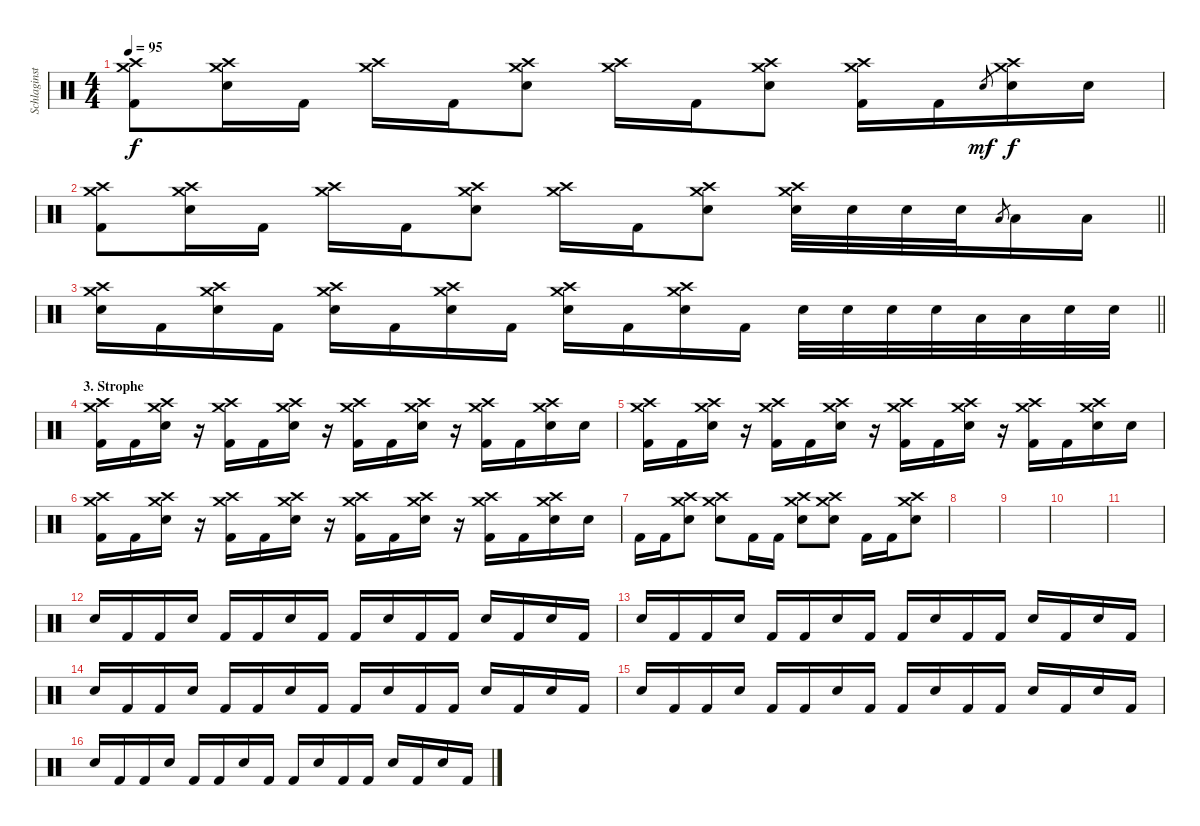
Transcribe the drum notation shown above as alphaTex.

\track ("Schlaginstrumente - Auswahl" "Schlaginst") {instrument percussion}
\staff {score}
\articulation defaults
\ts (4 4)
\tempo 95
\clef neutral
\ks c
("Crash high (hit)" "Crash medium (hit)" "Kick (hit) 2").8{dy f} ("Crash high (hit)" "Crash medium (hit)" "Electric Snare (hit)").16 "Kick (hit) 2".16 ("Crash high (hit)" "Crash medium (hit)").16 "Kick (hit) 2".16 ("Crash high (hit)" "Crash medium (hit)" "Electric Snare (hit)").8 ("Crash high (hit)" "Crash medium (hit)").16 "Kick (hit) 2".16 ("Crash high (hit)" "Crash medium (hit)" "Electric Snare (hit)").8 ("Crash high (hit)" "Crash medium (hit)" "Kick (hit) 2").16 "Kick (hit) 2".16 "Electric Snare (hit)".8{gr dy mf} ("Crash high (hit)" "Crash medium (hit)" "Electric Snare (hit)").16{dy f} "Electric Snare (hit)".16 |
\barLineRight lightlight
("Crash high (hit)" "Crash medium (hit)" "Kick (hit) 2").8 ("Crash high (hit)" "Crash medium (hit)" "Electric Snare (hit)").16 "Kick (hit) 2".16 ("Crash high (hit)" "Crash medium (hit)").16 "Kick (hit) 2".16 ("Crash high (hit)" "Crash medium (hit)" "Electric Snare (hit)").8 ("Crash high (hit)" "Crash medium (hit)").16 "Kick (hit) 2".16 ("Crash high (hit)" "Crash medium (hit)" "Electric Snare (hit)").8 ("Crash high (hit)" "Crash medium (hit)" "Electric Snare (hit)").32 "Electric Snare (hit)".32 "Electric Snare (hit)".32 "Electric Snare (hit)".32 "Low Tom (hit)".8{gr} "Low Tom (hit)".16 "Low Tom (hit)".16 |
\barLineRight lightlight
("Crash high (hit)" "Crash medium (hit)" "Electric Snare (hit)").16 "Kick (hit) 2".16 ("Crash high (hit)" "Crash medium (hit)" "Electric Snare (hit)").16 "Kick (hit) 2".16 ("Crash high (hit)" "Crash medium (hit)" "Electric Snare (hit)").16 "Kick (hit) 2".16 ("Crash high (hit)" "Crash medium (hit)" "Electric Snare (hit)").16 "Kick (hit) 2".16 ("Crash high (hit)" "Crash medium (hit)" "Electric Snare (hit)").16 "Kick (hit) 2".16 ("Crash high (hit)" "Crash medium (hit)" "Electric Snare (hit)").16 "Kick (hit) 2".16 "Electric Snare (hit)".32 "Electric Snare (hit)".32 "Electric Snare (hit)".32 "Electric Snare (hit)".32 "Low Tom (hit)".32 "Low Tom (hit)".32 "Snare (hit) 2".32 "Snare (hit) 2".32 |
\section ("" "3. Strophe")
("Crash high (hit)" "Crash medium (hit)" "Kick (hit) 2").16 "Kick (hit) 2".16 ("Crash high (hit)" "Crash medium (hit)" "Electric Snare (hit)").16 r.16 ("Crash high (hit)" "Crash medium (hit)" "Kick (hit) 2").16 "Kick (hit) 2".16 ("Crash high (hit)" "Crash medium (hit)" "Electric Snare (hit)").16 r.16 ("Crash high (hit)" "Crash medium (hit)" "Kick (hit) 2").16 "Kick (hit) 2".16 ("Crash high (hit)" "Crash medium (hit)" "Electric Snare (hit)").16 r.16 ("Crash high (hit)" "Crash medium (hit)" "Kick (hit) 2").16 "Kick (hit) 2".16 ("Crash high (hit)" "Crash medium (hit)" "Electric Snare (hit)").16 "Electric Snare (hit)".16 |
("Crash high (hit)" "Crash medium (hit)" "Kick (hit) 2").16 "Kick (hit) 2".16 ("Crash high (hit)" "Crash medium (hit)" "Electric Snare (hit)").16 r.16 ("Crash high (hit)" "Crash medium (hit)" "Kick (hit) 2").16 "Kick (hit) 2".16 ("Crash high (hit)" "Crash medium (hit)" "Electric Snare (hit)").16 r.16 ("Crash high (hit)" "Crash medium (hit)" "Kick (hit) 2").16 "Kick (hit) 2".16 ("Crash high (hit)" "Crash medium (hit)" "Electric Snare (hit)").16 r.16 ("Crash high (hit)" "Crash medium (hit)" "Kick (hit) 2").16 "Kick (hit) 2".16 ("Crash high (hit)" "Crash medium (hit)" "Electric Snare (hit)").16 "Electric Snare (hit)".16 |
("Crash high (hit)" "Crash medium (hit)" "Kick (hit) 2").16 "Kick (hit) 2".16 ("Crash high (hit)" "Crash medium (hit)" "Electric Snare (hit)").16 r.16 ("Crash high (hit)" "Crash medium (hit)" "Kick (hit) 2").16 "Kick (hit) 2".16 ("Crash high (hit)" "Crash medium (hit)" "Electric Snare (hit)").16 r.16 ("Crash high (hit)" "Crash medium (hit)" "Kick (hit) 2").16 "Kick (hit) 2".16 ("Crash high (hit)" "Crash medium (hit)" "Electric Snare (hit)").16 r.16 ("Crash high (hit)" "Crash medium (hit)" "Kick (hit) 2").16 "Kick (hit) 2".16 ("Crash high (hit)" "Crash medium (hit)" "Electric Snare (hit)").16 "Electric Snare (hit)".16 |
"Kick (hit) 2".16 "Kick (hit) 2".16 ("Crash high (hit)" "Crash medium (hit)" "Electric Snare (hit)").8 ("Crash high (hit)" "Crash medium (hit)" "Electric Snare (hit)").8 "Kick (hit) 2".16 "Kick (hit) 2".16 ("Crash high (hit)" "Crash medium (hit)" "Electric Snare (hit)").8 ("Crash high (hit)" "Crash medium (hit)" "Electric Snare (hit)").8 "Kick (hit) 2".16 "Kick (hit) 2".16 ("Crash high (hit)" "Crash medium (hit)" "Electric Snare (hit)").8 |
|
|
|
|
"Snare (hit) 2".16 "Kick (hit) 2".16 "Kick (hit) 2".16 "Snare (hit) 2".16 "Kick (hit) 2".16 "Kick (hit) 2".16 "Snare (hit) 2".16 "Kick (hit) 2".16 "Kick (hit) 2".16 "Snare (hit) 2".16 "Kick (hit) 2".16 "Kick (hit) 2".16 "Snare (hit) 2".16 "Kick (hit) 2".16 "Snare (hit) 2".16 "Kick (hit) 2".16 |
"Snare (hit) 2".16 "Kick (hit) 2".16 "Kick (hit) 2".16 "Snare (hit) 2".16 "Kick (hit) 2".16 "Kick (hit) 2".16 "Snare (hit) 2".16 "Kick (hit) 2".16 "Kick (hit) 2".16 "Snare (hit) 2".16 "Kick (hit) 2".16 "Kick (hit) 2".16 "Snare (hit) 2".16 "Kick (hit) 2".16 "Snare (hit) 2".16 "Kick (hit) 2".16 |
"Snare (hit) 2".16 "Kick (hit) 2".16 "Kick (hit) 2".16 "Snare (hit) 2".16 "Kick (hit) 2".16 "Kick (hit) 2".16 "Snare (hit) 2".16 "Kick (hit) 2".16 "Kick (hit) 2".16 "Snare (hit) 2".16 "Kick (hit) 2".16 "Kick (hit) 2".16 "Snare (hit) 2".16 "Kick (hit) 2".16 "Snare (hit) 2".16 "Kick (hit) 2".16 |
"Snare (hit) 2".16 "Kick (hit) 2".16 "Kick (hit) 2".16 "Snare (hit) 2".16 "Kick (hit) 2".16 "Kick (hit) 2".16 "Snare (hit) 2".16 "Kick (hit) 2".16 "Kick (hit) 2".16 "Snare (hit) 2".16 "Kick (hit) 2".16 "Kick (hit) 2".16 "Snare (hit) 2".16 "Kick (hit) 2".16 "Snare (hit) 2".16 "Kick (hit) 2".16 |
"Snare (hit) 2".16 "Kick (hit) 2".16 "Kick (hit) 2".16 "Snare (hit) 2".16 "Kick (hit) 2".16 "Kick (hit) 2".16 "Snare (hit) 2".16 "Kick (hit) 2".16 "Kick (hit) 2".16 "Snare (hit) 2".16 "Kick (hit) 2".16 "Kick (hit) 2".16 "Snare (hit) 2".16 "Kick (hit) 2".16 "Snare (hit) 2".16 "Kick (hit) 2".16
